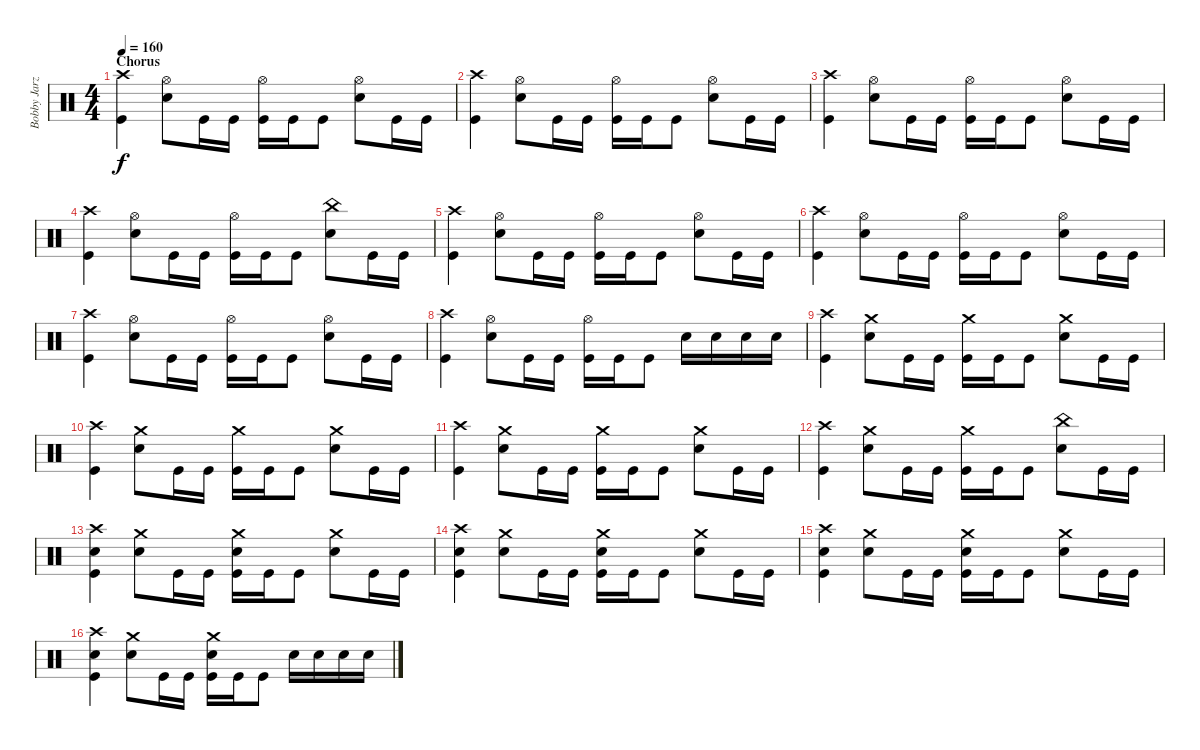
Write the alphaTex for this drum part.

\track ("Bobby Jarzombek" "Bobby Jarz") {instrument percussion}
\staff {score}
\articulation defaults
\ts (4 4)
\section ("" "Chorus")
\tempo 160
\clef neutral
\ks c
("Crash high (hit)" "Kick (hit)").4{dy f} ("Hi-Hat (open)" "Electric Snare (hit)").8 "Kick (hit)".16 "Kick (hit)".16 ("Hi-Hat (open)" "Kick (hit)").16 "Kick (hit)".16 "Kick (hit)".8 ("Hi-Hat (open)" "Electric Snare (hit)").8 "Kick (hit)".16 "Kick (hit)".16 |
("Crash high (hit)" "Kick (hit)").4 ("Hi-Hat (open)" "Electric Snare (hit)").8 "Kick (hit)".16 "Kick (hit)".16 ("Hi-Hat (open)" "Kick (hit)").16 "Kick (hit)".16 "Kick (hit)".8 ("Hi-Hat (open)" "Electric Snare (hit)").8 "Kick (hit)".16 "Kick (hit)".16 |
("Crash high (hit)" "Kick (hit)").4 ("Hi-Hat (open)" "Electric Snare (hit)").8 "Kick (hit)".16 "Kick (hit)".16 ("Hi-Hat (open)" "Kick (hit)").16 "Kick (hit)".16 "Kick (hit)".8 ("Hi-Hat (open)" "Electric Snare (hit)").8 "Kick (hit)".16 "Kick (hit)".16 |
("Crash high (hit)" "Kick (hit)").4 ("Hi-Hat (open)" "Electric Snare (hit)").8 "Kick (hit)".16 "Kick (hit)".16 ("Hi-Hat (open)" "Kick (hit)").16 "Kick (hit)".16 "Kick (hit)".8 ("China (hit)" "Electric Snare (hit)").8 "Kick (hit)".16 "Kick (hit)".16 |
("Crash high (hit)" "Kick (hit)").4 ("Hi-Hat (open)" "Electric Snare (hit)").8 "Kick (hit)".16 "Kick (hit)".16 ("Hi-Hat (open)" "Kick (hit)").16 "Kick (hit)".16 "Kick (hit)".8 ("Hi-Hat (open)" "Electric Snare (hit)").8 "Kick (hit)".16 "Kick (hit)".16 |
("Crash high (hit)" "Kick (hit)").4 ("Hi-Hat (open)" "Electric Snare (hit)").8 "Kick (hit)".16 "Kick (hit)".16 ("Hi-Hat (open)" "Kick (hit)").16 "Kick (hit)".16 "Kick (hit)".8 ("Hi-Hat (open)" "Electric Snare (hit)").8 "Kick (hit)".16 "Kick (hit)".16 |
("Crash high (hit)" "Kick (hit)").4 ("Hi-Hat (open)" "Electric Snare (hit)").8 "Kick (hit)".16 "Kick (hit)".16 ("Hi-Hat (open)" "Kick (hit)").16 "Kick (hit)".16 "Kick (hit)".8 ("Hi-Hat (open)" "Electric Snare (hit)").8 "Kick (hit)".16 "Kick (hit)".16 |
("Crash high (hit)" "Kick (hit)").4 ("Hi-Hat (open)" "Electric Snare (hit)").8 "Kick (hit)".16 "Kick (hit)".16 ("Hi-Hat (open)" "Kick (hit)").16 "Kick (hit)".16 "Kick (hit)".8 "Electric Snare (hit)".16 "Electric Snare (hit)".16 "Electric Snare (hit)".16 "Electric Snare (hit)".16 |
("Crash high (hit)" "Kick (hit)").4 ("Crash medium (hit)" "Electric Snare (hit)").8 "Kick (hit)".16 "Kick (hit)".16 ("Crash medium (hit)" "Kick (hit)").16 "Kick (hit)".16 "Kick (hit)".8 ("Crash medium (hit)" "Electric Snare (hit)").8 "Kick (hit)".16 "Kick (hit)".16 |
("Crash high (hit)" "Kick (hit)").4 ("Crash medium (hit)" "Electric Snare (hit)").8 "Kick (hit)".16 "Kick (hit)".16 ("Crash medium (hit)" "Kick (hit)").16 "Kick (hit)".16 "Kick (hit)".8 ("Crash medium (hit)" "Electric Snare (hit)").8 "Kick (hit)".16 "Kick (hit)".16 |
("Crash high (hit)" "Kick (hit)").4 ("Crash medium (hit)" "Electric Snare (hit)").8 "Kick (hit)".16 "Kick (hit)".16 ("Crash medium (hit)" "Kick (hit)").16 "Kick (hit)".16 "Kick (hit)".8 ("Crash medium (hit)" "Electric Snare (hit)").8 "Kick (hit)".16 "Kick (hit)".16 |
("Crash high (hit)" "Kick (hit)").4 ("Crash medium (hit)" "Electric Snare (hit)").8 "Kick (hit)".16 "Kick (hit)".16 ("Crash medium (hit)" "Kick (hit)").16 "Kick (hit)".16 "Kick (hit)".8 ("China (hit)" "Electric Snare (hit)").8 "Kick (hit)".16 "Kick (hit)".16 |
("Crash high (hit)" "Electric Snare (hit)" "Kick (hit)").4 ("Crash medium (hit)" "Electric Snare (hit)").8 "Kick (hit)".16 "Kick (hit)".16 ("Crash medium (hit)" "Electric Snare (hit)" "Kick (hit)").16 "Kick (hit)".16 "Kick (hit)".8 ("Crash medium (hit)" "Electric Snare (hit)").8 "Kick (hit)".16 "Kick (hit)".16 |
("Crash high (hit)" "Electric Snare (hit)" "Kick (hit)").4 ("Crash medium (hit)" "Electric Snare (hit)").8 "Kick (hit)".16 "Kick (hit)".16 ("Crash medium (hit)" "Electric Snare (hit)" "Kick (hit)").16 "Kick (hit)".16 "Kick (hit)".8 ("Crash medium (hit)" "Electric Snare (hit)").8 "Kick (hit)".16 "Kick (hit)".16 |
("Crash high (hit)" "Electric Snare (hit)" "Kick (hit)").4 ("Crash medium (hit)" "Electric Snare (hit)").8 "Kick (hit)".16 "Kick (hit)".16 ("Crash medium (hit)" "Electric Snare (hit)" "Kick (hit)").16 "Kick (hit)".16 "Kick (hit)".8 ("Crash medium (hit)" "Electric Snare (hit)").8 "Kick (hit)".16 "Kick (hit)".16 |
("Crash high (hit)" "Electric Snare (hit)" "Kick (hit)").4 ("Crash medium (hit)" "Electric Snare (hit)").8 "Kick (hit)".16 "Kick (hit)".16 ("Crash medium (hit)" "Electric Snare (hit)" "Kick (hit)").16 "Kick (hit)".16 "Kick (hit)".8 "Electric Snare (hit)".16 "Electric Snare (hit)".16 "Electric Snare (hit)".16 "Electric Snare (hit)".16
